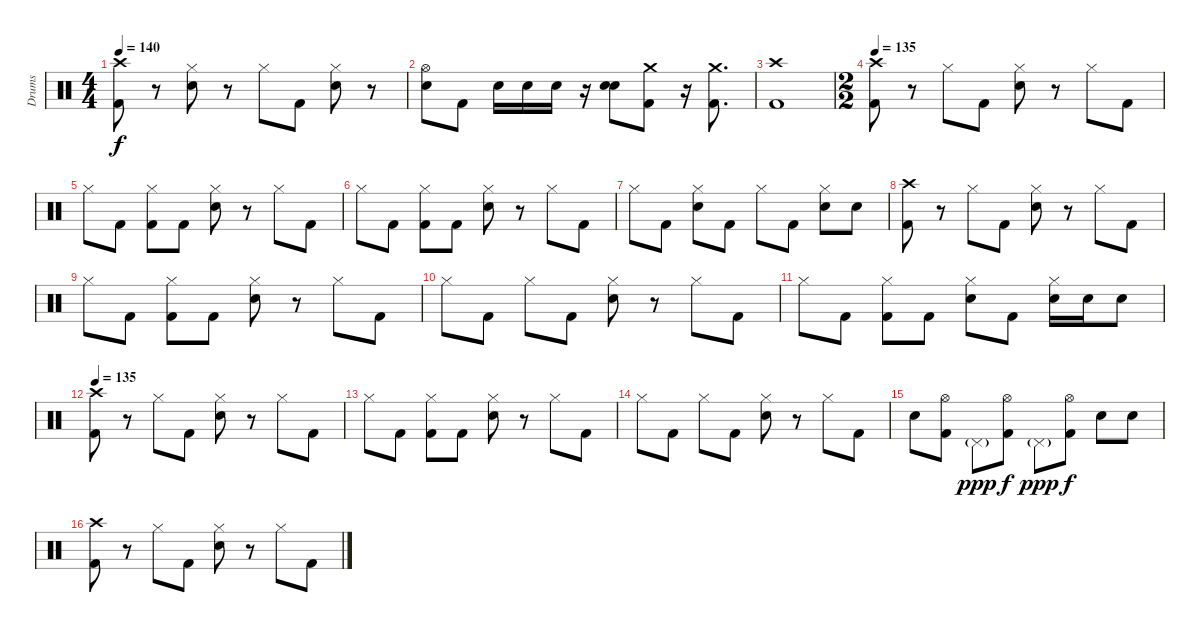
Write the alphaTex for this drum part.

\track ("Drums" "Drums") {instrument percussion}
\staff {score}
\articulation defaults
\ts (4 4)
\tempo 140
\clef neutral
\ks c
("Crash high (hit)" "Kick (hit) 2").8{dy f} r.8 ("Hi-Hat (closed)" "Snare (hit) 2").8 r.8 "Hi-Hat (closed)".8 "Kick (hit) 2".8 ("Hi-Hat (closed)" "Snare (hit) 2").8 r.8 |
("Hi-Hat (open)" "Snare (hit) 2").8 "Kick (hit) 2".8 "Snare (hit) 2".16 "Snare (hit) 2".16 "Snare (hit) 2".16 r.16 ("Snare (hit) 2" "Snare (hit) 2").8{bd 480} ("Crash medium (hit)" "Kick (hit) 2").8 r.16 ("Crash medium (hit)" "Kick (hit) 2").8{d} |
("Crash high (hit)" "Kick (hit) 2").1 |
\ts (2 2)
\tempo 120
\tempo 135
("Crash high (hit)" "Kick (hit) 2").8 r.8 "Hi-Hat (closed)".8 "Kick (hit) 2".8 ("Hi-Hat (closed)" "Snare (hit) 2").8 r.8 "Hi-Hat (closed)".8 "Kick (hit) 2".8 |
"Hi-Hat (closed)".8 "Kick (hit) 2".8 ("Hi-Hat (closed)" "Kick (hit) 2").8 "Kick (hit) 2".8 ("Hi-Hat (closed)" "Snare (hit) 2").8 r.8 "Hi-Hat (closed)".8 "Kick (hit) 2".8 |
"Hi-Hat (closed)".8 "Kick (hit) 2".8 ("Hi-Hat (closed)" "Kick (hit) 2").8 "Kick (hit) 2".8 ("Hi-Hat (closed)" "Snare (hit) 2").8 r.8 "Hi-Hat (closed)".8 "Kick (hit) 2".8 |
"Hi-Hat (closed)".8 "Kick (hit) 2".8 ("Hi-Hat (closed)" "Snare (hit) 2").8 "Kick (hit) 2".8 "Hi-Hat (closed)".8 "Kick (hit) 2".8 ("Hi-Hat (closed)" "Snare (hit) 2").8 "Snare (hit) 2".8 |
("Crash high (hit)" "Kick (hit) 2").8 r.8 "Hi-Hat (closed)".8 "Kick (hit) 2".8 ("Hi-Hat (closed)" "Snare (hit) 2").8 r.8 "Hi-Hat (closed)".8 "Kick (hit) 2".8 |
"Hi-Hat (closed)".8 "Kick (hit) 2".8 ("Hi-Hat (closed)" "Kick (hit) 2").8 "Kick (hit) 2".8 ("Hi-Hat (closed)" "Snare (hit) 2").8 r.8 "Hi-Hat (closed)".8 "Kick (hit) 2".8 |
"Hi-Hat (closed)".8 "Kick (hit) 2".8 "Hi-Hat (closed)".8 "Kick (hit) 2".8 ("Hi-Hat (closed)" "Snare (hit) 2").8 r.8 "Hi-Hat (closed)".8 "Kick (hit) 2".8 |
"Hi-Hat (closed)".8 "Kick (hit) 2".8 ("Hi-Hat (closed)" "Kick (hit) 2").8 "Kick (hit) 2".8 ("Hi-Hat (closed)" "Snare (hit) 2").8 "Kick (hit) 2".8 ("Hi-Hat (closed)" "Snare (hit) 2").16 "Snare (hit) 2".16 "Snare (hit) 2".8 |
\tempo 135
("Crash high (hit)" "Kick (hit) 2").8 r.8 "Hi-Hat (closed)".8 "Kick (hit) 2".8 ("Hi-Hat (closed)" "Snare (hit) 2").8 r.8 "Hi-Hat (closed)".8 "Kick (hit) 2".8 |
"Hi-Hat (closed)".8 "Kick (hit) 2".8 ("Hi-Hat (closed)" "Kick (hit) 2").8 "Kick (hit) 2".8 ("Hi-Hat (closed)" "Snare (hit) 2").8 r.8 "Hi-Hat (closed)".8 "Kick (hit) 2".8 |
"Hi-Hat (closed)".8 "Kick (hit) 2".8 "Hi-Hat (closed)".8 "Kick (hit) 2".8 ("Hi-Hat (closed)" "Snare (hit) 2").8 r.8 "Hi-Hat (closed)".8 "Kick (hit) 2".8 |
"Snare (hit) 2".8 ("Hi-Hat (open)" "Kick (hit) 2").8 "Pedal Hi-Hat (hit)"{g}.8{dy ppp} ("Hi-Hat (open)" "Kick (hit) 2").8{dy f} "Pedal Hi-Hat (hit)"{g}.8{dy ppp} ("Hi-Hat (open)" "Kick (hit) 2").8{dy f} "Snare (hit) 2".8 "Snare (hit) 2".8 |
("Crash high (hit)" "Kick (hit) 2").8 r.8 "Hi-Hat (closed)".8 "Kick (hit) 2".8 ("Hi-Hat (closed)" "Snare (hit) 2").8 r.8 "Hi-Hat (closed)".8 "Kick (hit) 2".8
